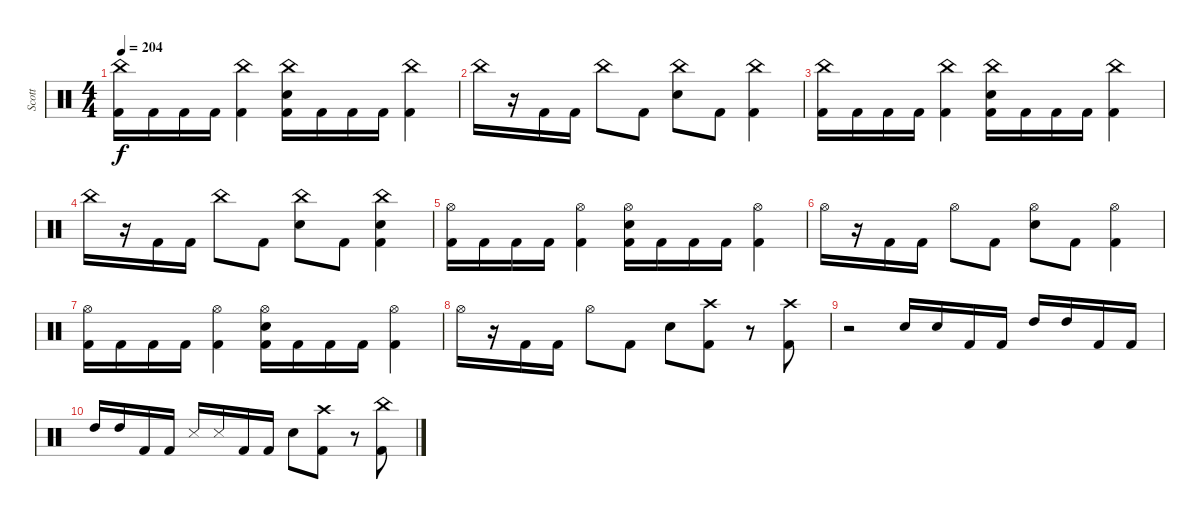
\track ("Scott" "Scott") {instrument percussion}
\staff {score}
\articulation defaults
\ts (4 4)
\tempo 204
\clef neutral
\ks c
("China (hit)" "Kick (hit) 2").16{dy f} "Kick (hit) 2".16 "Kick (hit) 2".16 "Kick (hit) 2".16 ("China (hit)" "Kick (hit) 2").4 ("China (hit)" "Snare (hit) 2" "Kick (hit) 2").16 "Kick (hit) 2".16 "Kick (hit) 2".16 "Kick (hit) 2".16 ("China (hit)" "Kick (hit) 2").4 |
"China (hit)".16 r.16 "Kick (hit) 2".16 "Kick (hit) 2".16 "China (hit)".8 "Kick (hit) 2".8 ("China (hit)" "Snare (hit) 2").8 "Kick (hit) 2".8 ("China (hit)" "Kick (hit) 2").4 |
("China (hit)" "Kick (hit) 2").16 "Kick (hit) 2".16 "Kick (hit) 2".16 "Kick (hit) 2".16 ("China (hit)" "Kick (hit) 2").4 ("China (hit)" "Snare (hit) 2" "Kick (hit) 2").16 "Kick (hit) 2".16 "Kick (hit) 2".16 "Kick (hit) 2".16 ("China (hit)" "Kick (hit) 2").4 |
"China (hit)".16 r.16 "Kick (hit) 2".16 "Kick (hit) 2".16 "China (hit)".8 "Kick (hit) 2".8 ("China (hit)" "Snare (hit) 2").8 "Kick (hit) 2".8 ("China (hit)" "Snare (hit) 2" "Kick (hit) 2").4 |
("Hi-Hat (open)" "Kick (hit) 2").16 "Kick (hit) 2".16 "Kick (hit) 2".16 "Kick (hit) 2".16 ("Hi-Hat (open)" "Kick (hit) 2").4 ("Hi-Hat (open)" "Snare (hit) 2" "Kick (hit) 2").16 "Kick (hit) 2".16 "Kick (hit) 2".16 "Kick (hit) 2".16 ("Hi-Hat (open)" "Kick (hit) 2").4 |
"Hi-Hat (open)".16 r.16 "Kick (hit) 2".16 "Kick (hit) 2".16 "Hi-Hat (open)".8 "Kick (hit) 2".8 ("Hi-Hat (open)" "Snare (hit) 2").8 "Kick (hit) 2".8 ("Hi-Hat (open)" "Kick (hit) 2").4 |
("Hi-Hat (open)" "Kick (hit) 2").16 "Kick (hit) 2".16 "Kick (hit) 2".16 "Kick (hit) 2".16 ("Hi-Hat (open)" "Kick (hit) 2").4 ("Hi-Hat (open)" "Snare (hit) 2" "Kick (hit) 2").16 "Kick (hit) 2".16 "Kick (hit) 2".16 "Kick (hit) 2".16 ("Hi-Hat (open)" "Kick (hit) 2").4 |
"Hi-Hat (open)".16 r.16 "Kick (hit) 2".16 "Kick (hit) 2".16 "Hi-Hat (open)".8 "Kick (hit) 2".8 "Snare (hit) 2".8 ("Crash high (hit)" "Kick (hit) 2").8 r.8 ("Crash high (hit)" "Kick (hit) 2").8 |
r.2 "Snare (hit) 2".16 "Snare (hit) 2".16 "Kick (hit) 2".16 "Kick (hit) 2".16 "High Tom (hit)".16 "High Tom (hit)".16 "Kick (hit) 2".16 "Kick (hit) 2".16 |
"High Tom (hit)".16 "High Tom (hit)".16 "Kick (hit) 2".16 "Kick (hit) 2".16 "Snare (side stick) 3".16 "Snare (side stick) 3".16 "Kick (hit) 2".16 "Kick (hit) 2".16 "Snare (hit) 2".8 ("Crash high (hit)" "Kick (hit) 2").8 r.8 ("China (hit)" "Kick (hit) 2").8
